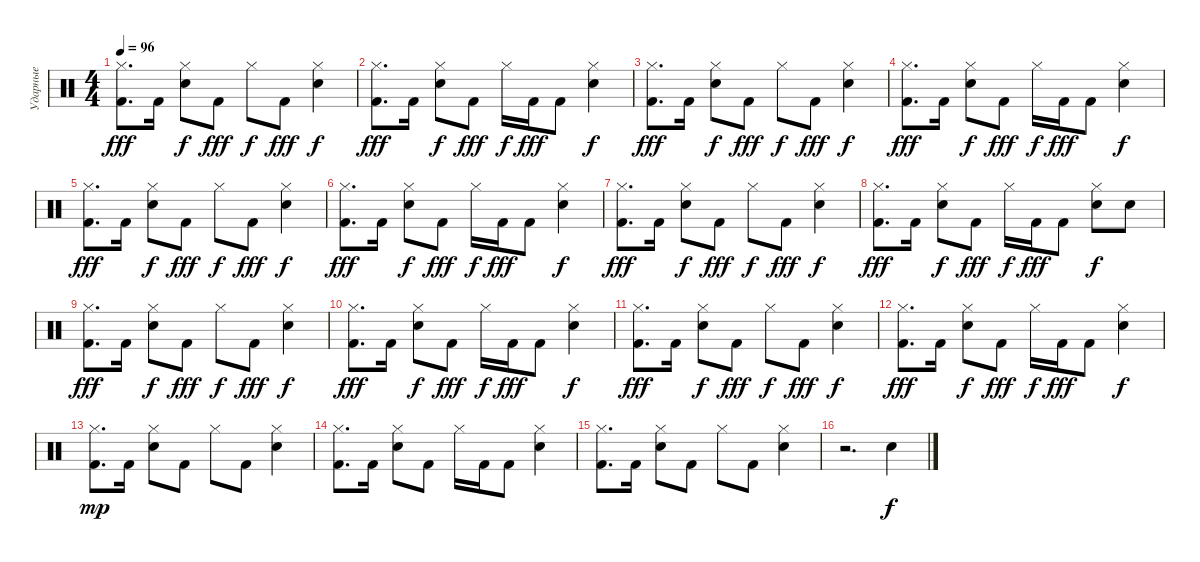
\track ("Ударные" "Ударные") {instrument percussion}
\staff {score}
\articulation defaults
\ts (4 4)
\tempo 96
\clef neutral
\ks aminor
("Hi-Hat (closed)" "Kick (hit) 2").8{d dy fff} "Kick (hit) 2".16 ("Hi-Hat (closed)" "Snare (hit) 2").8{dy f} "Kick (hit) 2".8{dy fff} "Hi-Hat (closed)".8{dy f} "Kick (hit) 2".8{dy fff} ("Hi-Hat (closed)" "Snare (hit) 2").4{dy f} |
("Hi-Hat (closed)" "Kick (hit) 2").8{d dy fff} "Kick (hit) 2".16 ("Hi-Hat (closed)" "Snare (hit) 2").8{dy f} "Kick (hit) 2".8{dy fff} "Hi-Hat (closed)".16{dy f} "Kick (hit) 2".16{dy fff} "Kick (hit) 2".8 ("Hi-Hat (closed)" "Snare (hit) 2").4{dy f} |
("Hi-Hat (closed)" "Kick (hit) 2").8{d dy fff} "Kick (hit) 2".16 ("Hi-Hat (closed)" "Snare (hit) 2").8{dy f} "Kick (hit) 2".8{dy fff} "Hi-Hat (closed)".8{dy f} "Kick (hit) 2".8{dy fff} ("Hi-Hat (closed)" "Snare (hit) 2").4{dy f} |
("Hi-Hat (closed)" "Kick (hit) 2").8{d dy fff} "Kick (hit) 2".16 ("Hi-Hat (closed)" "Snare (hit) 2").8{dy f} "Kick (hit) 2".8{dy fff} "Hi-Hat (closed)".16{dy f} "Kick (hit) 2".16{dy fff} "Kick (hit) 2".8 ("Hi-Hat (closed)" "Snare (hit) 2").4{dy f} |
("Hi-Hat (closed)" "Kick (hit) 2").8{d dy fff} "Kick (hit) 2".16 ("Hi-Hat (closed)" "Snare (hit) 2").8{dy f} "Kick (hit) 2".8{dy fff} "Hi-Hat (closed)".8{dy f} "Kick (hit) 2".8{dy fff} ("Hi-Hat (closed)" "Snare (hit) 2").4{dy f} |
("Hi-Hat (closed)" "Kick (hit) 2").8{d dy fff} "Kick (hit) 2".16 ("Hi-Hat (closed)" "Snare (hit) 2").8{dy f} "Kick (hit) 2".8{dy fff} "Hi-Hat (closed)".16{dy f} "Kick (hit) 2".16{dy fff} "Kick (hit) 2".8 ("Hi-Hat (closed)" "Snare (hit) 2").4{dy f} |
("Hi-Hat (closed)" "Kick (hit) 2").8{d dy fff} "Kick (hit) 2".16 ("Hi-Hat (closed)" "Snare (hit) 2").8{dy f} "Kick (hit) 2".8{dy fff} "Hi-Hat (closed)".8{dy f} "Kick (hit) 2".8{dy fff} ("Hi-Hat (closed)" "Snare (hit) 2").4{dy f} |
("Hi-Hat (closed)" "Kick (hit) 2").8{d dy fff} "Kick (hit) 2".16 ("Hi-Hat (closed)" "Snare (hit) 2").8{dy f} "Kick (hit) 2".8{dy fff} "Hi-Hat (closed)".16{dy f} "Kick (hit) 2".16{dy fff} "Kick (hit) 2".8 ("Hi-Hat (closed)" "Snare (hit) 2").8{dy f} "Snare (hit) 2".8 |
("Hi-Hat (closed)" "Kick (hit) 2").8{d dy fff} "Kick (hit) 2".16 ("Hi-Hat (closed)" "Snare (hit) 2").8{dy f} "Kick (hit) 2".8{dy fff} "Hi-Hat (closed)".8{dy f} "Kick (hit) 2".8{dy fff} ("Hi-Hat (closed)" "Snare (hit) 2").4{dy f} |
("Hi-Hat (closed)" "Kick (hit) 2").8{d dy fff} "Kick (hit) 2".16 ("Hi-Hat (closed)" "Snare (hit) 2").8{dy f} "Kick (hit) 2".8{dy fff} "Hi-Hat (closed)".16{dy f} "Kick (hit) 2".16{dy fff} "Kick (hit) 2".8 ("Hi-Hat (closed)" "Snare (hit) 2").4{dy f} |
("Hi-Hat (closed)" "Kick (hit) 2").8{d dy fff} "Kick (hit) 2".16 ("Hi-Hat (closed)" "Snare (hit) 2").8{dy f} "Kick (hit) 2".8{dy fff} "Hi-Hat (closed)".8{dy f} "Kick (hit) 2".8{dy fff} ("Hi-Hat (closed)" "Snare (hit) 2").4{dy f} |
("Hi-Hat (closed)" "Kick (hit) 2").8{d dy fff} "Kick (hit) 2".16 ("Hi-Hat (closed)" "Snare (hit) 2").8{dy f} "Kick (hit) 2".8{dy fff} "Hi-Hat (closed)".16{dy f} "Kick (hit) 2".16{dy fff} "Kick (hit) 2".8 ("Hi-Hat (closed)" "Snare (hit) 2").4{dy f} |
("Hi-Hat (closed)" "Kick (hit) 2").8{d dy mp} "Kick (hit) 2".16 ("Hi-Hat (closed)" "Snare (hit) 2").8 "Kick (hit) 2".8 "Hi-Hat (closed)".8 "Kick (hit) 2".8 ("Hi-Hat (closed)" "Snare (hit) 2").4 |
("Hi-Hat (closed)" "Kick (hit) 2").8{d} "Kick (hit) 2".16 ("Hi-Hat (closed)" "Snare (hit) 2").8 "Kick (hit) 2".8 "Hi-Hat (closed)".16 "Kick (hit) 2".16 "Kick (hit) 2".8 ("Hi-Hat (closed)" "Snare (hit) 2").4 |
("Hi-Hat (closed)" "Kick (hit) 2").8{d} "Kick (hit) 2".16 ("Hi-Hat (closed)" "Snare (hit) 2").8 "Kick (hit) 2".8 "Hi-Hat (closed)".8 "Kick (hit) 2".8 ("Hi-Hat (closed)" "Snare (hit) 2").4 |
r.2{d} "Snare (hit) 2".4{dy f}
